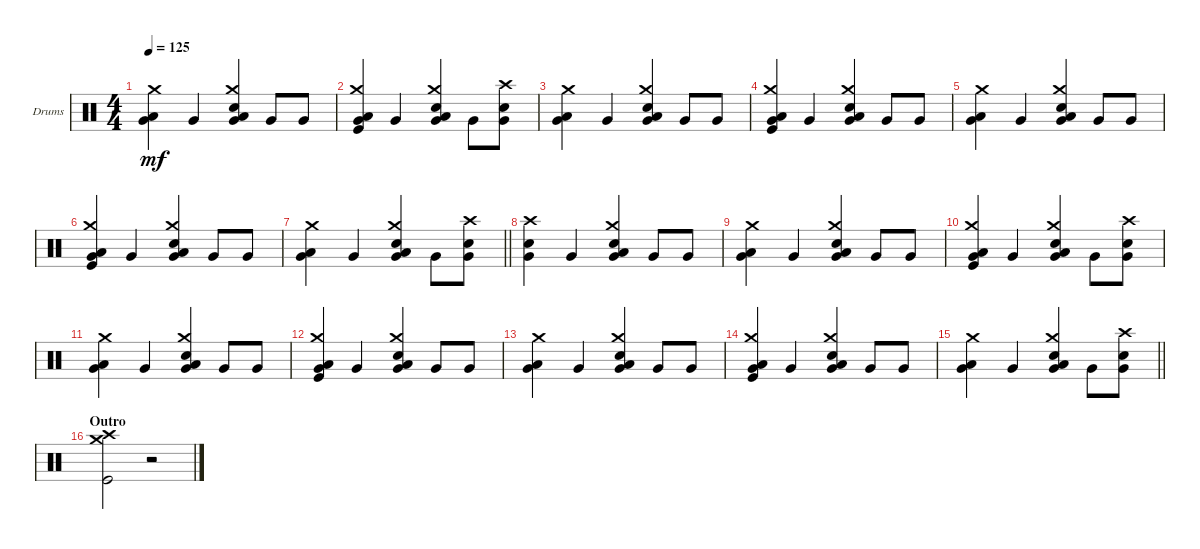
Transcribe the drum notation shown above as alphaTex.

\defaultSystemsLayout 4
\bracketExtendMode groupsimilarinstruments
\firstSystemTrackNameOrientation horizontal
\otherSystemsTrackNameOrientation horizontal
\chordDiagramsInScore
\track ("Drumkit" "Drums") {instrument percussion}
\staff {score}
\articulation defaults
\ts (4 4)
\tempo 125
\clef neutral
\scale
0.333333
\ks c
("Very Low Tom (hit)" "Low Tom (hit)" "Crash medium (hit)").4{dy mf} "Very Low Tom (hit)".4 ("Very Low Tom (hit)" "Low Tom (hit)" "Snare (hit) 2" "Crash medium (hit)").4 "Very Low Tom (hit)".8 "Very Low Tom (hit)".8 |
\scale
0.333333 ("Very Low Tom (hit)" "Low Tom (hit)" "Crash medium (hit)" "Kick (hit)").4 "Very Low Tom (hit)".4 ("Very Low Tom (hit)" "Low Tom (hit)" "Snare (hit) 2" "Crash medium (hit)").4 "Very Low Tom (hit)".8 ("Very Low Tom (hit)" "Snare (hit) 2" "Crash high (hit)").8 |
\scale
0.333333 ("Very Low Tom (hit)" "Low Tom (hit)" "Crash medium (hit)").4 "Very Low Tom (hit)".4 ("Very Low Tom (hit)" "Low Tom (hit)" "Snare (hit) 2" "Crash medium (hit)").4 "Very Low Tom (hit)".8 "Very Low Tom (hit)".8 |
\scale
0.333333 ("Very Low Tom (hit)" "Low Tom (hit)" "Crash medium (hit)" "Kick (hit)").4 "Very Low Tom (hit)".4 ("Very Low Tom (hit)" "Low Tom (hit)" "Snare (hit) 2" "Crash medium (hit)").4 "Very Low Tom (hit)".8 "Very Low Tom (hit)".8 |
\scale
0.333333 ("Very Low Tom (hit)" "Low Tom (hit)" "Crash medium (hit)").4 "Very Low Tom (hit)".4 ("Very Low Tom (hit)" "Low Tom (hit)" "Snare (hit) 2" "Crash medium (hit)").4 "Very Low Tom (hit)".8 "Very Low Tom (hit)".8 |
\scale
0.333333 ("Very Low Tom (hit)" "Low Tom (hit)" "Crash medium (hit)" "Kick (hit)").4 "Very Low Tom (hit)".4 ("Very Low Tom (hit)" "Low Tom (hit)" "Snare (hit) 2" "Crash medium (hit)").4 "Very Low Tom (hit)".8 "Very Low Tom (hit)".8 |
\scale
0.333333
\barLineRight lightlight
("Very Low Tom (hit)" "Low Tom (hit)" "Crash medium (hit)").4 "Very Low Tom (hit)".4 ("Very Low Tom (hit)" "Low Tom (hit)" "Snare (hit) 2" "Crash medium (hit)").4 "Very Low Tom (hit)".8 ("Very Low Tom (hit)" "Snare (hit) 2" "Crash high (hit)").8 |
\scale
0.333333 ("Very Low Tom (hit)" "Snare (hit) 2" "Crash high (hit)").4 "Very Low Tom (hit)".4 ("Very Low Tom (hit)" "Low Tom (hit)" "Snare (hit) 2" "Crash medium (hit)").4 "Very Low Tom (hit)".8 "Very Low Tom (hit)".8 |
\scale
0.333333 ("Very Low Tom (hit)" "Low Tom (hit)" "Crash medium (hit)").4 "Very Low Tom (hit)".4 ("Very Low Tom (hit)" "Low Tom (hit)" "Snare (hit) 2" "Crash medium (hit)").4 "Very Low Tom (hit)".8 "Very Low Tom (hit)".8 |
\scale
0.333333 ("Very Low Tom (hit)" "Low Tom (hit)" "Crash medium (hit)" "Kick (hit)").4 "Very Low Tom (hit)".4 ("Very Low Tom (hit)" "Low Tom (hit)" "Snare (hit) 2" "Crash medium (hit)").4 "Very Low Tom (hit)".8 ("Very Low Tom (hit)" "Snare (hit) 2" "Crash high (hit)").8 |
\scale
0.333333 ("Very Low Tom (hit)" "Low Tom (hit)" "Crash medium (hit)").4 "Very Low Tom (hit)".4 ("Very Low Tom (hit)" "Low Tom (hit)" "Snare (hit) 2" "Crash medium (hit)").4 "Very Low Tom (hit)".8 "Very Low Tom (hit)".8 |
\scale
0.333333 ("Very Low Tom (hit)" "Low Tom (hit)" "Crash medium (hit)" "Kick (hit)").4 "Very Low Tom (hit)".4 ("Very Low Tom (hit)" "Low Tom (hit)" "Snare (hit) 2" "Crash medium (hit)").4 "Very Low Tom (hit)".8 "Very Low Tom (hit)".8 |
\scale
0.333333 ("Very Low Tom (hit)" "Low Tom (hit)" "Crash medium (hit)").4 "Very Low Tom (hit)".4 ("Very Low Tom (hit)" "Low Tom (hit)" "Snare (hit) 2" "Crash medium (hit)").4 "Very Low Tom (hit)".8 "Very Low Tom (hit)".8 |
\scale
0.333333 ("Very Low Tom (hit)" "Low Tom (hit)" "Crash medium (hit)" "Kick (hit)").4 "Very Low Tom (hit)".4 ("Very Low Tom (hit)" "Low Tom (hit)" "Snare (hit) 2" "Crash medium (hit)").4 "Very Low Tom (hit)".8 "Very Low Tom (hit)".8 |
\scale
0.333333
\barLineRight lightlight
("Very Low Tom (hit)" "Low Tom (hit)" "Crash medium (hit)").4 "Very Low Tom (hit)".4 ("Very Low Tom (hit)" "Low Tom (hit)" "Snare (hit) 2" "Crash medium (hit)").4 "Very Low Tom (hit)".8 ("Very Low Tom (hit)" "Snare (hit) 2" "Crash high (hit)").8 |
\section ("" "Outro")
\scale
0.333333 ("Kick (hit)" "Crash medium (hit)" "Crash high (hit)").2 r.2
